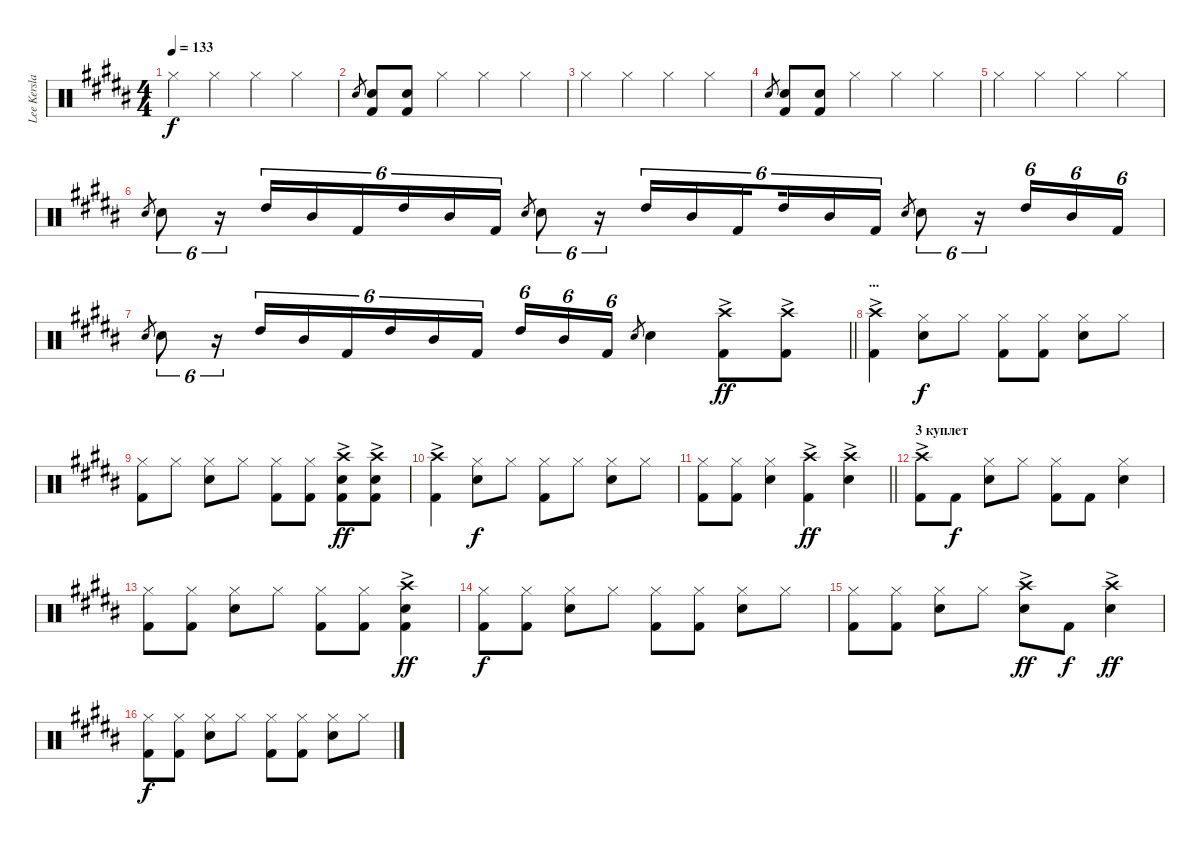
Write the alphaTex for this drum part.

\track ("Lee Kerslake" "Lee Kersla") {instrument percussion}
\staff {score}
\articulation defaults
\ts (4 4)
\tempo 133
\clef neutral
\ks b "Hi-Hat (closed)".4{dy f} "Hi-Hat (closed)".4 "Hi-Hat (closed)".4 "Hi-Hat (closed)".4
|
"Snare (hit) 2".8{gr} ("Kick (hit) 2" "Snare (hit) 2").8 ("Kick (hit) 2" "Snare (hit) 2").8 "Hi-Hat (closed)".4 "Hi-Hat (closed)".4 "Hi-Hat (closed)".4 |
"Hi-Hat (closed)".4 "Hi-Hat (closed)".4 "Hi-Hat (closed)".4 "Hi-Hat (closed)".4 |
"Snare (hit) 2".8{gr} ("Kick (hit) 2" "Snare (hit) 2").8 ("Kick (hit) 2" "Snare (hit) 2").8 "Hi-Hat (closed)".4 "Hi-Hat (closed)".4 "Hi-Hat (closed)".4 |
"Hi-Hat (closed)".4 "Hi-Hat (closed)".4 "Hi-Hat (closed)".4 "Hi-Hat (closed)".4 |
"Snare (hit) 2".8{gr} "Snare (hit) 2".8{tu (6 4)} r.16{tu (6 4)} "High Tom (hit)".16{tu (6 4)} "Mid Tom (hit)".16{tu (6 4)} "Kick (hit) 2".16{tu (6 4)} "High Tom (hit)".16{tu (6 4)} "Mid Tom (hit)".16{tu (6 4)} "Kick (hit) 2".16{tu (6 4)} "Snare (hit) 2".8{gr} "Snare (hit) 2".8{tu (6 4)} r.16{tu (6 4)} "High Tom (hit)".16{tu (6 4)} "Mid Tom (hit)".16{tu (6 4)} "Kick (hit) 2".16{tu (6 4) beam splitsecondary} "High Tom (hit)".16{tu (6 4)} "Mid Tom (hit)".16{tu (6 4)} "Kick (hit) 2".16{tu (6 4)} "Snare (hit) 2".8{gr} "Snare (hit) 2".8{tu (6 4)} r.16{tu (6 4)} "High Tom (hit)".16{tu (6 4)} "Mid Tom (hit)".16{tu (6 4)} "Kick (hit) 2".16{tu (6 4)} |
\barLineRight lightlight "Snare (hit) 2".8{gr} "Snare (hit) 2".8{tu (6 4)}
r.16{tu (6 4)} "High Tom (hit)".16{tu (6 4)} "Mid Tom (hit)".16{tu (6 4)} "Kick (hit) 2".16{tu (6 4)} "High Tom (hit)".16{tu (6 4)} "Mid Tom (hit)".16{tu (6 4)} "Kick (hit) 2".16{tu (6 4) beam splitsecondary} "High Tom (hit)".16{tu (6 4)} "Mid Tom (hit)".16{tu (6 4)} "Kick (hit) 2".16{tu (6 4)} "Snare (hit) 2".8{gr} "Snare (hit) 2".4 ("Kick (hit) 2" "Crash high (hit)"{ac}).8{dy ff} ("Kick (hit) 2" "Crash high (hit)"{ac}).8 |
\section ("" "...")
("Kick (hit) 2" "Crash high (hit)"{ac}).4 ("Snare (hit) 2" "Hi-Hat (closed)").8{dy f} "Hi-Hat (closed)".8 ("Hi-Hat (closed)" "Kick (hit) 2").8 ("Hi-Hat (closed)" "Kick (hit) 2").8 ("Snare (hit) 2" "Hi-Hat (closed)").8 "Hi-Hat (closed)".8 |
("Hi-Hat (closed)" "Kick (hit) 2").8 "Hi-Hat (closed)".8 ("Snare (hit) 2" "Hi-Hat (closed)").8 "Hi-Hat (closed)".8 ("Hi-Hat (closed)" "Kick (hit) 2").8 ("Hi-Hat (closed)" "Kick (hit) 2").8 ("Kick (hit) 2" "Crash high (hit)"{ac} "Snare (hit) 2").8{dy ff} ("Kick (hit) 2" "Crash high (hit)"{ac} "Snare (hit) 2").8 |
("Kick (hit) 2" "Crash high (hit)"{ac}).4 ("Snare (hit) 2" "Hi-Hat (closed)").8{dy f} "Hi-Hat (closed)".8 ("Hi-Hat (closed)" "Kick (hit) 2").8 "Hi-Hat (closed)".8 ("Snare (hit) 2" "Hi-Hat (closed)").8 "Hi-Hat (closed)".8 |
\barLineRight lightlight
("Hi-Hat (closed)" "Kick (hit) 2").8 ("Hi-Hat (closed)" "Kick (hit) 2").8 ("Snare (hit) 2" "Hi-Hat (closed)").4 ("Kick (hit) 2" "Crash high (hit)"{ac}).4{dy ff} ("Snare (hit) 2" "Crash high (hit)"{ac}).4 |
\section ("" "3 куплет")
("Kick (hit) 2" "Crash high (hit)"{ac}).8 "Kick (hit) 2".8{dy f} ("Snare (hit) 2" "Hi-Hat (closed)").8 "Hi-Hat (closed)".8 ("Hi-Hat (closed)" "Kick (hit) 2").8 "Kick (hit) 2".8 ("Snare (hit) 2" "Hi-Hat (closed)").4 |
("Hi-Hat (closed)" "Kick (hit) 2").8 ("Hi-Hat (closed)" "Kick (hit) 2").8 ("Snare (hit) 2" "Hi-Hat (closed)").8 "Hi-Hat (closed)".8 ("Hi-Hat (closed)" "Kick (hit) 2").8 ("Hi-Hat (closed)" "Kick (hit) 2").8 ("Kick (hit) 2" "Snare (hit) 2" "Crash high (hit)"{ac}).4{dy ff} |
("Hi-Hat (closed)" "Kick (hit) 2").8{dy f} ("Hi-Hat (closed)" "Kick (hit) 2").8 ("Snare (hit) 2" "Hi-Hat (closed)").8 "Hi-Hat (closed)".8 ("Hi-Hat (closed)" "Kick (hit) 2").8 ("Hi-Hat (closed)" "Kick (hit) 2").8 ("Snare (hit) 2" "Hi-Hat (closed)").8 "Hi-Hat (closed)".8 |
("Hi-Hat (closed)" "Kick (hit) 2").8 ("Hi-Hat (closed)" "Kick (hit) 2").8 ("Snare (hit) 2" "Hi-Hat (closed)").8 "Hi-Hat (closed)".8 ("Snare (hit) 2" "Crash high (hit)"{ac}).8{dy ff} "Kick (hit) 2".8{dy f} ("Snare (hit) 2" "Crash high (hit)"{ac}).4{dy ff} |
("Hi-Hat (closed)" "Kick (hit) 2").8{dy f} ("Hi-Hat (closed)" "Kick (hit) 2").8 ("Snare (hit) 2" "Hi-Hat (closed)").8 "Hi-Hat (closed)".8 ("Hi-Hat (closed)" "Kick (hit) 2").8 ("Hi-Hat (closed)" "Kick (hit) 2").8 ("Snare (hit) 2" "Hi-Hat (closed)").8 "Hi-Hat (closed)".8
